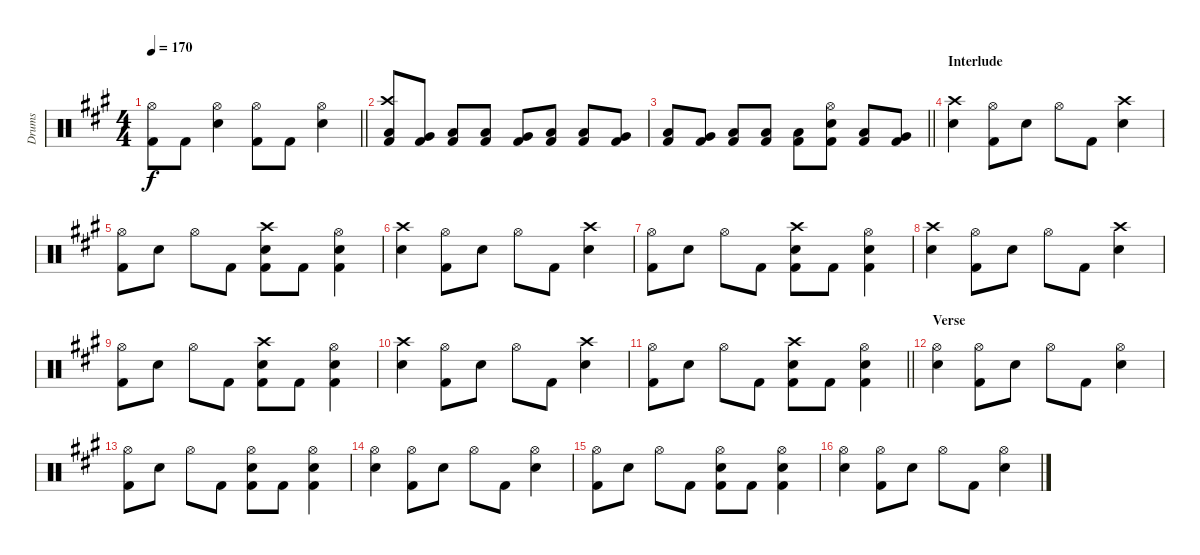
\track ("Drums" "Drums") {instrument percussion}
\staff {score}
\articulation defaults
\ts (4 4)
\tempo 170
\clef neutral
\barLineRight lightlight
\ks f#minor
("Hi-Hat (open)" "Kick (hit) 2").8{dy f} "Kick (hit) 2".8 ("Hi-Hat (open)" "Snare (hit) 2").4 ("Hi-Hat (open)" "Kick (hit) 2").8 "Kick (hit) 2".8 ("Hi-Hat (open)" "Snare (hit) 2").4 |
("Crash high (hit)" "Low Tom (hit)" "Kick (hit) 2").8 ("Very Low Tom (hit)" "Kick (hit) 2").8 ("Low Floor Tom (hit)" "Kick (hit) 2").8 ("Low Tom (hit)" "Kick (hit) 2").8 ("Very Low Tom (hit)" "Kick (hit) 2").8 ("Low Floor Tom (hit)" "Kick (hit) 2").8 ("Low Tom (hit)" "Kick (hit) 2").8 ("Very Low Tom (hit)" "Kick (hit) 2").8 |
\barLineRight lightlight
("Low Tom (hit)" "Kick (hit) 2").8 ("Very Low Tom (hit)" "Kick (hit) 2").8 ("Low Floor Tom (hit)" "Kick (hit) 2").8 ("Low Floor Tom (hit)" "Kick (hit) 2").8 ("Low Floor Tom (hit)" "Kick (hit) 2").8 ("Hi-Hat (open)" "Snare (hit) 2" "Kick (hit) 2").8 ("Low Tom (hit)" "Kick (hit) 2").8 ("Very Low Tom (hit)" "Kick (hit) 2").8 |
\section ("" "Interlude")
("Crash high (hit)" "Snare (hit) 2").4 ("Hi-Hat (open)" "Kick (hit) 2").8 "Snare (hit) 2".8 "Hi-Hat (open)".8 "Kick (hit) 2".8 ("Crash high (hit)" "Snare (hit) 2").4 |
("Hi-Hat (open)" "Kick (hit) 2").8 "Snare (hit) 2".8 "Hi-Hat (open)".8 "Kick (hit) 2".8 ("Crash high (hit)" "Snare (hit) 2" "Kick (hit) 2").8 "Kick (hit) 2".8 ("Hi-Hat (open)" "Snare (hit) 2" "Kick (hit) 2").4 |
("Crash high (hit)" "Snare (hit) 2").4 ("Hi-Hat (open)" "Kick (hit) 2").8 "Snare (hit) 2".8 "Hi-Hat (open)".8 "Kick (hit) 2".8 ("Crash high (hit)" "Snare (hit) 2").4 |
("Hi-Hat (open)" "Kick (hit) 2").8 "Snare (hit) 2".8 "Hi-Hat (open)".8 "Kick (hit) 2".8 ("Crash high (hit)" "Snare (hit) 2" "Kick (hit) 2").8 "Kick (hit) 2".8 ("Hi-Hat (open)" "Snare (hit) 2" "Kick (hit) 2").4 |
("Crash high (hit)" "Snare (hit) 2").4 ("Hi-Hat (open)" "Kick (hit) 2").8 "Snare (hit) 2".8 "Hi-Hat (open)".8 "Kick (hit) 2".8 ("Crash high (hit)" "Snare (hit) 2").4 |
("Hi-Hat (open)" "Kick (hit) 2").8 "Snare (hit) 2".8 "Hi-Hat (open)".8 "Kick (hit) 2".8 ("Crash high (hit)" "Snare (hit) 2" "Kick (hit) 2").8 "Kick (hit) 2".8 ("Hi-Hat (open)" "Snare (hit) 2" "Kick (hit) 2").4 |
("Crash high (hit)" "Snare (hit) 2").4 ("Hi-Hat (open)" "Kick (hit) 2").8 "Snare (hit) 2".8 "Hi-Hat (open)".8 "Kick (hit) 2".8 ("Crash high (hit)" "Snare (hit) 2").4 |
\barLineRight lightlight
("Hi-Hat (open)" "Kick (hit) 2").8 "Snare (hit) 2".8 "Hi-Hat (open)".8 "Kick (hit) 2".8 ("Crash high (hit)" "Snare (hit) 2" "Kick (hit) 2").8 "Kick (hit) 2".8 ("Hi-Hat (open)" "Snare (hit) 2" "Kick (hit) 2").4 |
\section ("" "Verse")
("Hi-Hat (open)" "Snare (hit) 2").4 ("Hi-Hat (open)" "Kick (hit) 2").8 "Snare (hit) 2".8 "Hi-Hat (open)".8 "Kick (hit) 2".8 ("Hi-Hat (open)" "Snare (hit) 2").4 |
("Hi-Hat (open)" "Kick (hit) 2").8 "Snare (hit) 2".8 "Hi-Hat (open)".8 "Kick (hit) 2".8 ("Hi-Hat (open)" "Snare (hit) 2" "Kick (hit) 2").8 "Kick (hit) 2".8 ("Hi-Hat (open)" "Snare (hit) 2" "Kick (hit) 2").4 |
("Hi-Hat (open)" "Snare (hit) 2").4 ("Hi-Hat (open)" "Kick (hit) 2").8 "Snare (hit) 2".8 "Hi-Hat (open)".8 "Kick (hit) 2".8 ("Hi-Hat (open)" "Snare (hit) 2").4 |
("Hi-Hat (open)" "Kick (hit) 2").8 "Snare (hit) 2".8 "Hi-Hat (open)".8 "Kick (hit) 2".8 ("Hi-Hat (open)" "Snare (hit) 2" "Kick (hit) 2").8 "Kick (hit) 2".8 ("Hi-Hat (open)" "Snare (hit) 2" "Kick (hit) 2").4 |
("Hi-Hat (open)" "Snare (hit) 2").4 ("Hi-Hat (open)" "Kick (hit) 2").8 "Snare (hit) 2".8 "Hi-Hat (open)".8 "Kick (hit) 2".8 ("Hi-Hat (open)" "Snare (hit) 2").4
